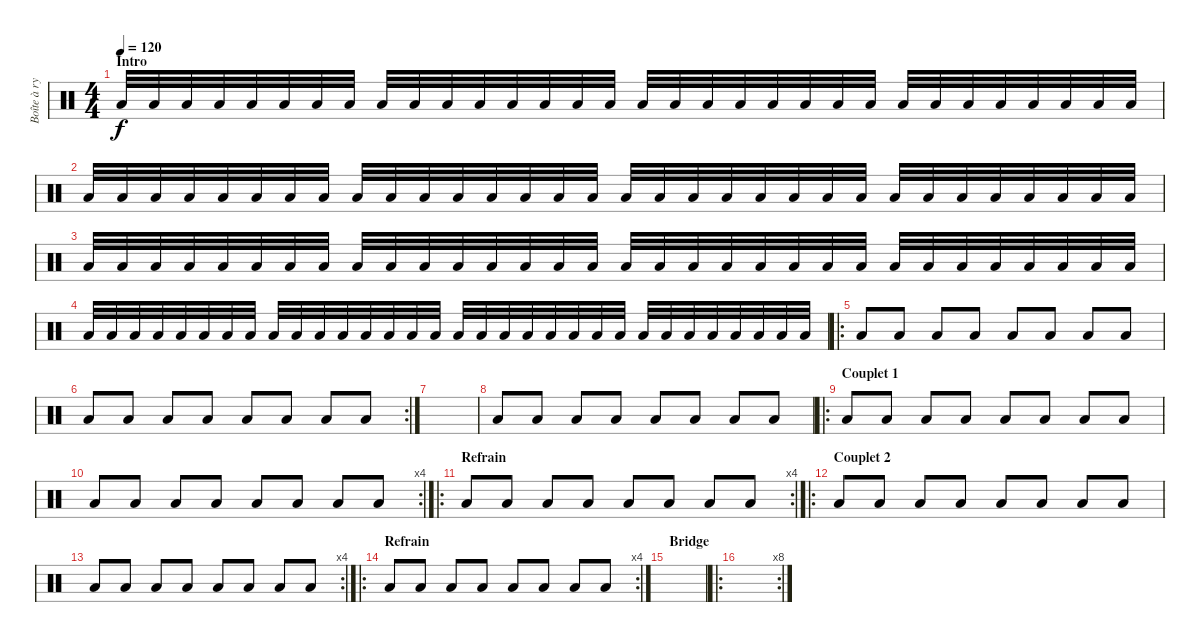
\track ("Boîte à rythme" "Boîte à ry") {instrument percussion}
\staff {score}
\articulation defaults
\ts (4 4)
\section ("" "Intro")
\tempo 120
\clef neutral
\ks c "Low Floor Tom (hit)".32{dy f} "Low Floor Tom (hit)".32 "Low Floor Tom (hit)".32 "Low Floor Tom (hit)".32 "Low Floor Tom (hit)".32 "Low Floor Tom (hit)".32 "Low Floor Tom (hit)".32 "Low Floor Tom (hit)".32 "Low Floor Tom (hit)".32 "Low Floor Tom (hit)".32 "Low Floor Tom (hit)".32 "Low Floor Tom (hit)".32 "Low Floor Tom (hit)".32 "Low Floor Tom (hit)".32 "Low Floor Tom (hit)".32 "Low Floor Tom (hit)".32 "Low Floor Tom (hit)".32 "Low Floor Tom (hit)".32 "Low Floor Tom (hit)".32 "Low Floor Tom (hit)".32 "Low Floor Tom (hit)".32 "Low Floor Tom (hit)".32 "Low Floor Tom (hit)".32 "Low Floor Tom (hit)".32 "Low Floor Tom (hit)".32 "Low Floor Tom (hit)".32 "Low Floor Tom (hit)".32 "Low Floor Tom (hit)".32 "Low Floor Tom (hit)".32 "Low Floor Tom (hit)".32 "Low Floor Tom (hit)".32 "Low Floor Tom (hit)".32
|
"Low Floor Tom (hit)".32 "Low Floor Tom (hit)".32 "Low Floor Tom (hit)".32 "Low Floor Tom (hit)".32 "Low Floor Tom (hit)".32 "Low Floor Tom (hit)".32 "Low Floor Tom (hit)".32 "Low Floor Tom (hit)".32 "Low Floor Tom (hit)".32 "Low Floor Tom (hit)".32 "Low Floor Tom (hit)".32 "Low Floor Tom (hit)".32 "Low Floor Tom (hit)".32 "Low Floor Tom (hit)".32 "Low Floor Tom (hit)".32 "Low Floor Tom (hit)".32 "Low Floor Tom (hit)".32 "Low Floor Tom (hit)".32 "Low Floor Tom (hit)".32 "Low Floor Tom (hit)".32 "Low Floor Tom (hit)".32 "Low Floor Tom (hit)".32 "Low Floor Tom (hit)".32 "Low Floor Tom (hit)".32 "Low Floor Tom (hit)".32 "Low Floor Tom (hit)".32 "Low Floor Tom (hit)".32 "Low Floor Tom (hit)".32 "Low Floor Tom (hit)".32 "Low Floor Tom (hit)".32 "Low Floor Tom (hit)".32 "Low Floor Tom (hit)".32 |
"Low Floor Tom (hit)".32 "Low Floor Tom (hit)".32 "Low Floor Tom (hit)".32 "Low Floor Tom (hit)".32 "Low Floor Tom (hit)".32 "Low Floor Tom (hit)".32 "Low Floor Tom (hit)".32 "Low Floor Tom (hit)".32 "Low Floor Tom (hit)".32 "Low Floor Tom (hit)".32 "Low Floor Tom (hit)".32 "Low Floor Tom (hit)".32 "Low Floor Tom (hit)".32 "Low Floor Tom (hit)".32 "Low Floor Tom (hit)".32 "Low Floor Tom (hit)".32 "Low Floor Tom (hit)".32 "Low Floor Tom (hit)".32 "Low Floor Tom (hit)".32 "Low Floor Tom (hit)".32 "Low Floor Tom (hit)".32 "Low Floor Tom (hit)".32 "Low Floor Tom (hit)".32 "Low Floor Tom (hit)".32 "Low Floor Tom (hit)".32 "Low Floor Tom (hit)".32 "Low Floor Tom (hit)".32 "Low Floor Tom (hit)".32 "Low Floor Tom (hit)".32 "Low Floor Tom (hit)".32 "Low Floor Tom (hit)".32 "Low Floor Tom (hit)".32 |
"Low Floor Tom (hit)".32 "Low Floor Tom (hit)".32 "Low Floor Tom (hit)".32 "Low Floor Tom (hit)".32 "Low Floor Tom (hit)".32 "Low Floor Tom (hit)".32 "Low Floor Tom (hit)".32 "Low Floor Tom (hit)".32 "Low Floor Tom (hit)".32 "Low Floor Tom (hit)".32 "Low Floor Tom (hit)".32 "Low Floor Tom (hit)".32 "Low Floor Tom (hit)".32 "Low Floor Tom (hit)".32 "Low Floor Tom (hit)".32 "Low Floor Tom (hit)".32 "Low Floor Tom (hit)".32 "Low Floor Tom (hit)".32 "Low Floor Tom (hit)".32 "Low Floor Tom (hit)".32 "Low Floor Tom (hit)".32 "Low Floor Tom (hit)".32 "Low Floor Tom (hit)".32 "Low Floor Tom (hit)".32 "Low Floor Tom (hit)".32 "Low Floor Tom (hit)".32 "Low Floor Tom (hit)".32 "Low Floor Tom (hit)".32 "Low Floor Tom (hit)".32 "Low Floor Tom (hit)".32 "Low Floor Tom (hit)".32 "Low Floor Tom (hit)".32 |
\ro "Low Floor Tom (hit)".8 "Low Floor Tom (hit)".8 "Low Floor Tom (hit)".8 "Low Floor Tom (hit)".8 "Low Floor Tom (hit)".8 "Low Floor Tom (hit)".8 "Low Floor Tom (hit)".8 "Low Floor Tom (hit)".8
|
\rc 2 "Low Floor Tom (hit)".8 "Low Floor Tom (hit)".8 "Low Floor Tom (hit)".8 "Low Floor Tom (hit)".8 "Low Floor Tom (hit)".8 "Low Floor Tom (hit)".8 "Low Floor Tom (hit)".8 "Low Floor Tom (hit)".8
|
|
"Low Floor Tom (hit)".8 "Low Floor Tom (hit)".8 "Low Floor Tom (hit)".8 "Low Floor Tom (hit)".8 "Low Floor Tom (hit)".8 "Low Floor Tom (hit)".8 "Low Floor Tom (hit)".8 "Low Floor Tom (hit)".8 |
\ro
\section ("" "Couplet 1")
"Low Floor Tom (hit)".8 "Low Floor Tom (hit)".8 "Low Floor Tom (hit)".8 "Low Floor Tom (hit)".8 "Low Floor Tom (hit)".8 "Low Floor Tom (hit)".8 "Low Floor Tom (hit)".8 "Low Floor Tom (hit)".8 |
\rc 4 "Low Floor Tom (hit)".8 "Low Floor Tom (hit)".8 "Low Floor Tom (hit)".8 "Low Floor Tom (hit)".8 "Low Floor Tom (hit)".8 "Low Floor Tom (hit)".8 "Low Floor Tom (hit)".8 "Low Floor Tom (hit)".8
|
\ro
\rc 4
\section ("" "Refrain")
"Low Floor Tom (hit)".8 "Low Floor Tom (hit)".8 "Low Floor Tom (hit)".8 "Low Floor Tom (hit)".8 "Low Floor Tom (hit)".8 "Low Floor Tom (hit)".8 "Low Floor Tom (hit)".8 "Low Floor Tom (hit)".8 |
\ro
\section ("" "Couplet 2")
"Low Floor Tom (hit)".8 "Low Floor Tom (hit)".8 "Low Floor Tom (hit)".8 "Low Floor Tom (hit)".8 "Low Floor Tom (hit)".8 "Low Floor Tom (hit)".8 "Low Floor Tom (hit)".8 "Low Floor Tom (hit)".8 |
\rc 4 "Low Floor Tom (hit)".8 "Low Floor Tom (hit)".8 "Low Floor Tom (hit)".8 "Low Floor Tom (hit)".8 "Low Floor Tom (hit)".8 "Low Floor Tom (hit)".8 "Low Floor Tom (hit)".8 "Low Floor Tom (hit)".8
|
\ro
\rc 4
\section ("" "Refrain")
"Low Floor Tom (hit)".8 "Low Floor Tom (hit)".8 "Low Floor Tom (hit)".8 "Low Floor Tom (hit)".8 "Low Floor Tom (hit)".8 "Low Floor Tom (hit)".8 "Low Floor Tom (hit)".8 "Low Floor Tom (hit)".8 |
\section ("" "Bridge")
|
\ro
\rc 8
